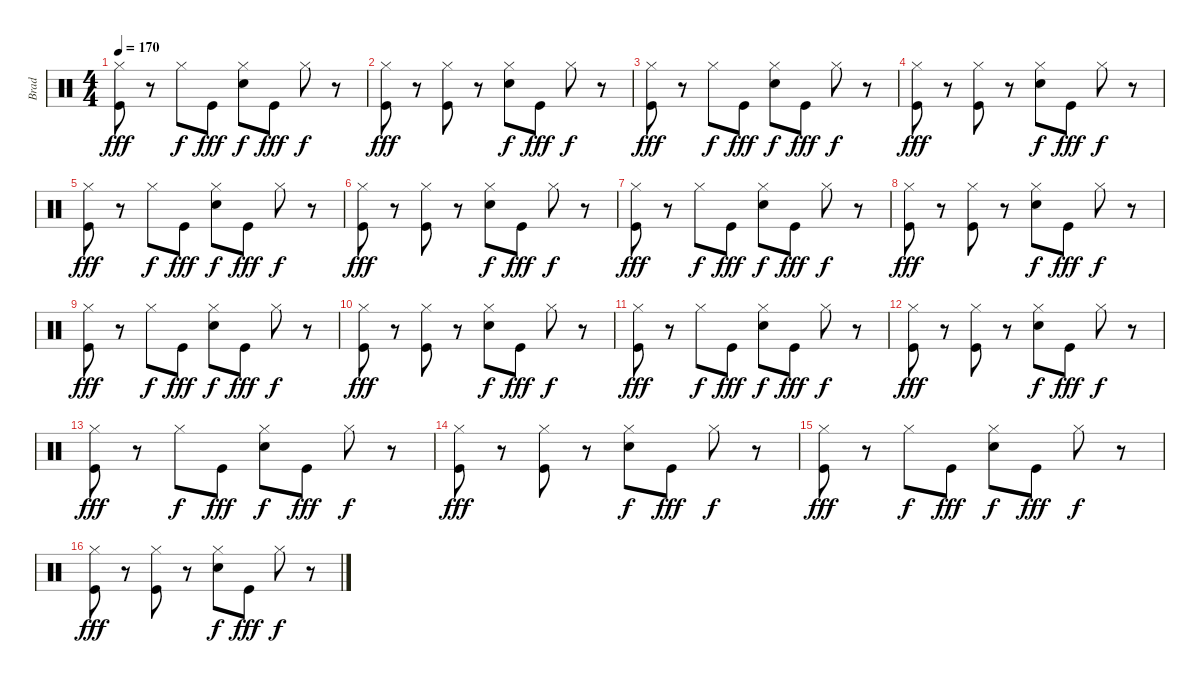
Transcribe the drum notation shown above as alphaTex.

\track ("Brad" "Brad") {instrument percussion}
\staff {score}
\articulation defaults
\ts (4 4)
\tempo 170
\clef neutral
\ks c
("Hi-Hat (closed)" "Kick (hit)").8{dy fff} r.8 "Hi-Hat (closed)".8{dy f} "Kick (hit)".8{dy fff} ("Hi-Hat (closed)" "Electric Snare (hit)").8{dy f} "Kick (hit)".8{dy fff} "Hi-Hat (closed)".8{dy f} r.8 |
("Hi-Hat (closed)" "Kick (hit)").8{dy fff} r.8 ("Hi-Hat (closed)" "Kick (hit)").8 r.8 ("Hi-Hat (closed)" "Electric Snare (hit)").8{dy f} "Kick (hit)".8{dy fff} "Hi-Hat (closed)".8{dy f} r.8 |
("Hi-Hat (closed)" "Kick (hit)").8{dy fff} r.8 "Hi-Hat (closed)".8{dy f} "Kick (hit)".8{dy fff} ("Hi-Hat (closed)" "Electric Snare (hit)").8{dy f} "Kick (hit)".8{dy fff} "Hi-Hat (closed)".8{dy f} r.8 |
("Hi-Hat (closed)" "Kick (hit)").8{dy fff} r.8 ("Hi-Hat (closed)" "Kick (hit)").8 r.8 ("Hi-Hat (closed)" "Electric Snare (hit)").8{dy f} "Kick (hit)".8{dy fff} "Hi-Hat (closed)".8{dy f} r.8 |
("Hi-Hat (closed)" "Kick (hit)").8{dy fff} r.8 "Hi-Hat (closed)".8{dy f} "Kick (hit)".8{dy fff} ("Hi-Hat (closed)" "Electric Snare (hit)").8{dy f} "Kick (hit)".8{dy fff} "Hi-Hat (closed)".8{dy f} r.8 |
("Hi-Hat (closed)" "Kick (hit)").8{dy fff} r.8 ("Hi-Hat (closed)" "Kick (hit)").8 r.8 ("Hi-Hat (closed)" "Electric Snare (hit)").8{dy f} "Kick (hit)".8{dy fff} "Hi-Hat (closed)".8{dy f} r.8 |
("Hi-Hat (closed)" "Kick (hit)").8{dy fff} r.8 "Hi-Hat (closed)".8{dy f} "Kick (hit)".8{dy fff} ("Hi-Hat (closed)" "Electric Snare (hit)").8{dy f} "Kick (hit)".8{dy fff} "Hi-Hat (closed)".8{dy f} r.8 |
("Hi-Hat (closed)" "Kick (hit)").8{dy fff} r.8 ("Hi-Hat (closed)" "Kick (hit)").8 r.8 ("Hi-Hat (closed)" "Electric Snare (hit)").8{dy f} "Kick (hit)".8{dy fff} "Hi-Hat (closed)".8{dy f} r.8 |
("Hi-Hat (closed)" "Kick (hit)").8{dy fff} r.8 "Hi-Hat (closed)".8{dy f} "Kick (hit)".8{dy fff} ("Hi-Hat (closed)" "Electric Snare (hit)").8{dy f} "Kick (hit)".8{dy fff} "Hi-Hat (closed)".8{dy f} r.8 |
("Hi-Hat (closed)" "Kick (hit)").8{dy fff} r.8 ("Hi-Hat (closed)" "Kick (hit)").8 r.8 ("Hi-Hat (closed)" "Electric Snare (hit)").8{dy f} "Kick (hit)".8{dy fff} "Hi-Hat (closed)".8{dy f} r.8 |
("Hi-Hat (closed)" "Kick (hit)").8{dy fff} r.8 "Hi-Hat (closed)".8{dy f} "Kick (hit)".8{dy fff} ("Hi-Hat (closed)" "Electric Snare (hit)").8{dy f} "Kick (hit)".8{dy fff} "Hi-Hat (closed)".8{dy f} r.8 |
("Hi-Hat (closed)" "Kick (hit)").8{dy fff} r.8 ("Hi-Hat (closed)" "Kick (hit)").8 r.8 ("Hi-Hat (closed)" "Electric Snare (hit)").8{dy f} "Kick (hit)".8{dy fff} "Hi-Hat (closed)".8{dy f} r.8 |
("Hi-Hat (closed)" "Kick (hit)").8{dy fff} r.8 "Hi-Hat (closed)".8{dy f} "Kick (hit)".8{dy fff} ("Hi-Hat (closed)" "Electric Snare (hit)").8{dy f} "Kick (hit)".8{dy fff} "Hi-Hat (closed)".8{dy f} r.8 |
("Hi-Hat (closed)" "Kick (hit)").8{dy fff} r.8 ("Hi-Hat (closed)" "Kick (hit)").8 r.8 ("Hi-Hat (closed)" "Electric Snare (hit)").8{dy f} "Kick (hit)".8{dy fff} "Hi-Hat (closed)".8{dy f} r.8 |
("Hi-Hat (closed)" "Kick (hit)").8{dy fff} r.8 "Hi-Hat (closed)".8{dy f} "Kick (hit)".8{dy fff} ("Hi-Hat (closed)" "Electric Snare (hit)").8{dy f} "Kick (hit)".8{dy fff} "Hi-Hat (closed)".8{dy f} r.8 |
("Hi-Hat (closed)" "Kick (hit)").8{dy fff} r.8 ("Hi-Hat (closed)" "Kick (hit)").8 r.8 ("Hi-Hat (closed)" "Electric Snare (hit)").8{dy f} "Kick (hit)".8{dy fff} "Hi-Hat (closed)".8{dy f} r.8
